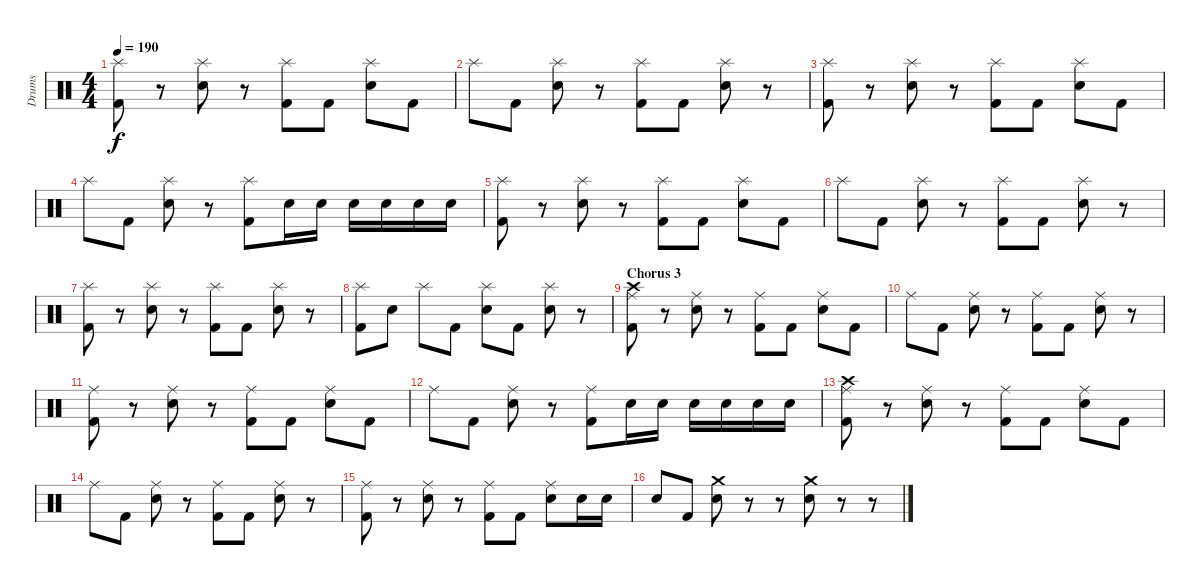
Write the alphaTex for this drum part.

\track ("Drums" "Drums") {instrument percussion}
\staff {score}
\articulation defaults
\ts (4 4)
\tempo 190
\clef neutral
\ks c
("Splash (hit)" "Kick (hit) 2").8{dy f} r.8 ("Splash (hit)" "Snare (hit) 2").8 r.8 ("Splash (hit)" "Kick (hit) 2").8 "Kick (hit) 2".8 ("Splash (hit)" "Snare (hit) 2").8 "Kick (hit) 2".8 |
"Splash (hit)".8 "Kick (hit) 2".8 ("Splash (hit)" "Snare (hit) 2").8 r.8 ("Splash (hit)" "Kick (hit) 2").8 "Kick (hit) 2".8 ("Splash (hit)" "Snare (hit) 2").8 r.8 |
("Splash (hit)" "Kick (hit) 2").8 r.8 ("Splash (hit)" "Snare (hit) 2").8 r.8 ("Splash (hit)" "Kick (hit) 2").8 "Kick (hit) 2".8 ("Splash (hit)" "Snare (hit) 2").8 "Kick (hit) 2".8 |
"Splash (hit)".8 "Kick (hit) 2".8 ("Splash (hit)" "Snare (hit) 2").8 r.8 ("Splash (hit)" "Kick (hit) 2").8 "Snare (hit) 2".16 "Snare (hit) 2".16 "Snare (hit) 2".16 "Snare (hit) 2".16 "Snare (hit) 2".16 "Snare (hit) 2".16 |
("Splash (hit)" "Kick (hit) 2").8 r.8 ("Splash (hit)" "Snare (hit) 2").8 r.8 ("Splash (hit)" "Kick (hit) 2").8 "Kick (hit) 2".8 ("Splash (hit)" "Snare (hit) 2").8 "Kick (hit) 2".8 |
"Splash (hit)".8 "Kick (hit) 2".8 ("Splash (hit)" "Snare (hit) 2").8 r.8 ("Splash (hit)" "Kick (hit) 2").8 "Kick (hit) 2".8 ("Splash (hit)" "Snare (hit) 2").8 r.8 |
("Splash (hit)" "Kick (hit) 2").8 r.8 ("Splash (hit)" "Snare (hit) 2").8 r.8 ("Splash (hit)" "Kick (hit) 2").8 "Kick (hit) 2".8 ("Splash (hit)" "Snare (hit) 2").8 r.8 |
("Splash (hit)" "Kick (hit) 2").8 "Snare (hit) 2".8 "Splash (hit)".8 "Kick (hit) 2".8 ("Splash (hit)" "Snare (hit) 2").8 "Kick (hit) 2".8 ("Splash (hit)" "Snare (hit) 2").8 r.8 |
\section ("" "Chorus 3")
("Ride (middle)" "Crash high (hit)" "Kick (hit) 2").8 r.8 ("Ride (middle)" "Snare (hit) 2").8 r.8 ("Ride (middle)" "Kick (hit) 2").8 "Kick (hit) 2".8 ("Ride (middle)" "Snare (hit) 2").8 "Kick (hit) 2".8 |
"Ride (middle)".8 "Kick (hit) 2".8 ("Ride (middle)" "Snare (hit) 2").8 r.8 ("Ride (middle)" "Kick (hit) 2").8 "Kick (hit) 2".8 ("Ride (middle)" "Snare (hit) 2").8 r.8 |
("Ride (middle)" "Kick (hit) 2").8 r.8 ("Ride (middle)" "Snare (hit) 2").8 r.8 ("Ride (middle)" "Kick (hit) 2").8 "Kick (hit) 2".8 ("Ride (middle)" "Snare (hit) 2").8 "Kick (hit) 2".8 |
"Ride (middle)".8 "Kick (hit) 2".8 ("Ride (middle)" "Snare (hit) 2").8 r.8 ("Ride (middle)" "Kick (hit) 2").8 "Snare (hit) 2".16 "Snare (hit) 2".16 "Snare (hit) 2".16 "Snare (hit) 2".16 "Snare (hit) 2".16 "Snare (hit) 2".16 |
("Ride (middle)" "Crash high (hit)" "Kick (hit) 2").8 r.8 ("Ride (middle)" "Snare (hit) 2").8 r.8 ("Ride (middle)" "Kick (hit) 2").8 "Kick (hit) 2".8 ("Ride (middle)" "Snare (hit) 2").8 "Kick (hit) 2".8 |
"Ride (middle)".8 "Kick (hit) 2".8 ("Ride (middle)" "Snare (hit) 2").8 r.8 ("Ride (middle)" "Kick (hit) 2").8 "Kick (hit) 2".8 ("Ride (middle)" "Snare (hit) 2").8 r.8 |
("Ride (middle)" "Kick (hit) 2").8 r.8 ("Ride (middle)" "Snare (hit) 2").8 r.8 ("Ride (middle)" "Kick (hit) 2").8 "Kick (hit) 2".8 ("Ride (middle)" "Snare (hit) 2").8 "Snare (hit) 2".16 "Snare (hit) 2".16 |
"Snare (hit) 2".8 "Kick (hit) 2".8 ("Crash medium (hit)" "Snare (hit) 2").8 r.8 r.8 ("Crash medium (hit)" "Snare (hit) 2").8 r.8 r.8
